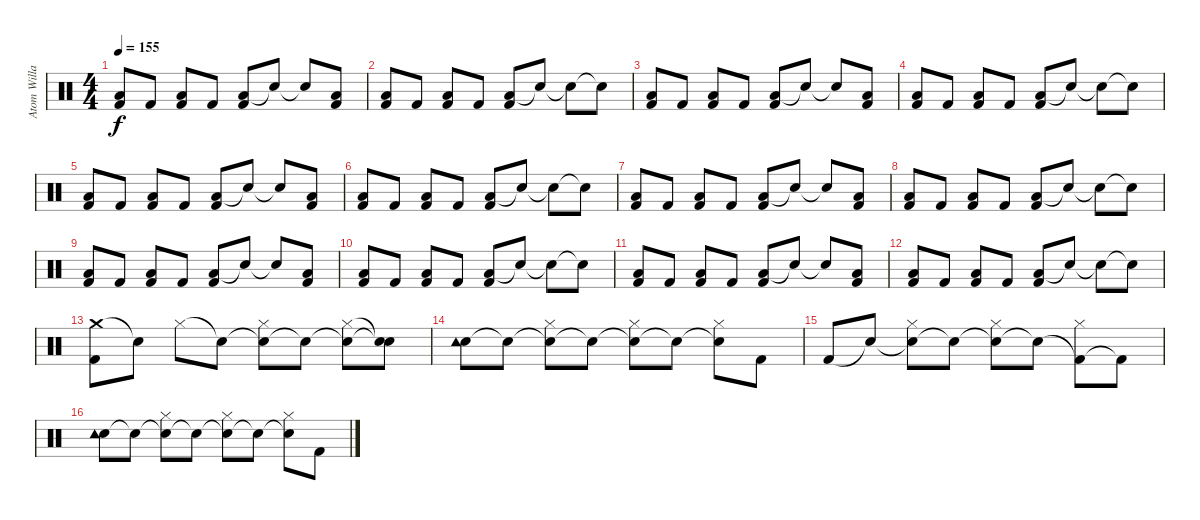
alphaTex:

\track ("Atom Willard Drums" "Atom Willa") {instrument percussion}
\staff {score}
\articulation defaults
\ts (4 4)
\tempo 155
\clef neutral
\ks c
("Low Tom (hit)" "Kick (hit) 2").8{dy f} "Kick (hit) 2".8 ("Low Tom (hit)" "Kick (hit) 2").8 "Kick (hit) 2".8 ("Low Tom (hit)" "Kick (hit) 2").8 "Snare (hit)"{t}.8 "Snare (hit)"{t}.8 ("Low Tom (hit)" "Kick (hit) 2").8 |
("Low Tom (hit)" "Kick (hit) 2").8 "Kick (hit) 2".8 ("Low Tom (hit)" "Kick (hit) 2").8 "Kick (hit) 2".8 ("Low Tom (hit)" "Kick (hit) 2").8 "Snare (hit)"{t}.8 "Snare (hit)"{t}.8 "Snare (hit)"{t}.8 |
("Low Tom (hit)" "Kick (hit) 2").8 "Kick (hit) 2".8 ("Low Tom (hit)" "Kick (hit) 2").8 "Kick (hit) 2".8 ("Low Tom (hit)" "Kick (hit) 2").8 "Snare (hit)"{t}.8 "Snare (hit)"{t}.8 ("Low Tom (hit)" "Kick (hit) 2").8 |
("Low Tom (hit)" "Kick (hit) 2").8 "Kick (hit) 2".8 ("Low Tom (hit)" "Kick (hit) 2").8 "Kick (hit) 2".8 ("Low Tom (hit)" "Kick (hit) 2").8 "Snare (hit)"{t}.8 "Snare (hit)"{t}.8 "Snare (hit)"{t}.8 |
("Low Tom (hit)" "Kick (hit) 2").8 "Kick (hit) 2".8 ("Low Tom (hit)" "Kick (hit) 2").8 "Kick (hit) 2".8 ("Low Tom (hit)" "Kick (hit) 2").8 "Snare (hit)"{t}.8 "Snare (hit)"{t}.8 ("Low Tom (hit)" "Kick (hit) 2").8 |
("Low Tom (hit)" "Kick (hit) 2").8 "Kick (hit) 2".8 ("Low Tom (hit)" "Kick (hit) 2").8 "Kick (hit) 2".8 ("Low Tom (hit)" "Kick (hit) 2").8 "Snare (hit)"{t}.8 "Snare (hit)"{t}.8 "Snare (hit)"{t}.8 |
("Low Tom (hit)" "Kick (hit) 2").8 "Kick (hit) 2".8 ("Low Tom (hit)" "Kick (hit) 2").8 "Kick (hit) 2".8 ("Low Tom (hit)" "Kick (hit) 2").8 "Snare (hit)"{t}.8 "Snare (hit)"{t}.8 ("Low Tom (hit)" "Kick (hit) 2").8 |
("Low Tom (hit)" "Kick (hit) 2").8 "Kick (hit) 2".8 ("Low Tom (hit)" "Kick (hit) 2").8 "Kick (hit) 2".8 ("Low Tom (hit)" "Kick (hit) 2").8 "Snare (hit)"{t}.8 "Snare (hit)"{t}.8 "Snare (hit)"{t}.8 |
("Low Tom (hit)" "Kick (hit) 2").8 "Kick (hit) 2".8 ("Low Tom (hit)" "Kick (hit) 2").8 "Kick (hit) 2".8 ("Low Tom (hit)" "Kick (hit) 2").8 "Snare (hit)"{t}.8 "Snare (hit)"{t}.8 ("Low Tom (hit)" "Kick (hit) 2").8 |
("Low Tom (hit)" "Kick (hit) 2").8 "Kick (hit) 2".8 ("Low Tom (hit)" "Kick (hit) 2").8 "Kick (hit) 2".8 ("Low Tom (hit)" "Kick (hit) 2").8 "Snare (hit)"{t}.8 "Snare (hit)"{t}.8 "Snare (hit)"{t}.8 |
("Low Tom (hit)" "Kick (hit) 2").8 "Kick (hit) 2".8 ("Low Tom (hit)" "Kick (hit) 2").8 "Kick (hit) 2".8 ("Low Tom (hit)" "Kick (hit) 2").8 "Snare (hit)"{t}.8 "Snare (hit)"{t}.8 ("Low Tom (hit)" "Kick (hit) 2").8 |
("Low Tom (hit)" "Kick (hit) 2").8 "Kick (hit) 2".8 ("Low Tom (hit)" "Kick (hit) 2").8 "Kick (hit) 2".8 ("Low Tom (hit)" "Kick (hit) 2").8 "Snare (hit)"{t}.8 "Snare (hit)"{t}.8 "Snare (hit)"{t}.8 |
("Crash medium (hit)" "Kick (hit) 2").8 "Snare (hit)"{t}.8 "Hi-Hat (closed)".8 "Snare (hit)"{t}.8 ("Snare (hit)"{t} "Hi-Hat (closed)").8 "Snare (hit)"{t}.8 ("Snare (hit)"{t} "Hi-Hat (closed)").8 ("Snare (hit)"{t} "Snare (hit)"{t}).8 |
("Hand Clap (hit)" "Tambourine (hit)").8 "Snare (hit)"{t}.8 ("Snare (hit)"{t} "Hi-Hat (closed)").8 "Snare (hit)"{t}.8 ("Snare (hit)"{t} "Hi-Hat (closed)").8 "Snare (hit)"{t}.8 ("Snare (hit)"{t} "Hi-Hat (closed)").8 "Kick (hit) 2".8 |
"Kick (hit) 2".8 "Snare (hit)"{t}.8 ("Snare (hit)"{t} "Hi-Hat (closed)").8 "Snare (hit)"{t}.8 ("Snare (hit)"{t} "Hi-Hat (closed)").8 "Snare (hit)"{t}.8 ("Kick (hit) 2"{t} "Hi-Hat (closed)").8 "Kick (hit) 2"{t}.8 |
("Hand Clap (hit)" "Tambourine (hit)").8 "Snare (hit)"{t}.8 ("Snare (hit)"{t} "Hi-Hat (closed)").8 "Snare (hit)"{t}.8 ("Snare (hit)"{t} "Hi-Hat (closed)").8 "Snare (hit)"{t}.8 ("Snare (hit)"{t} "Hi-Hat (closed)").8 "Kick (hit) 2".8
